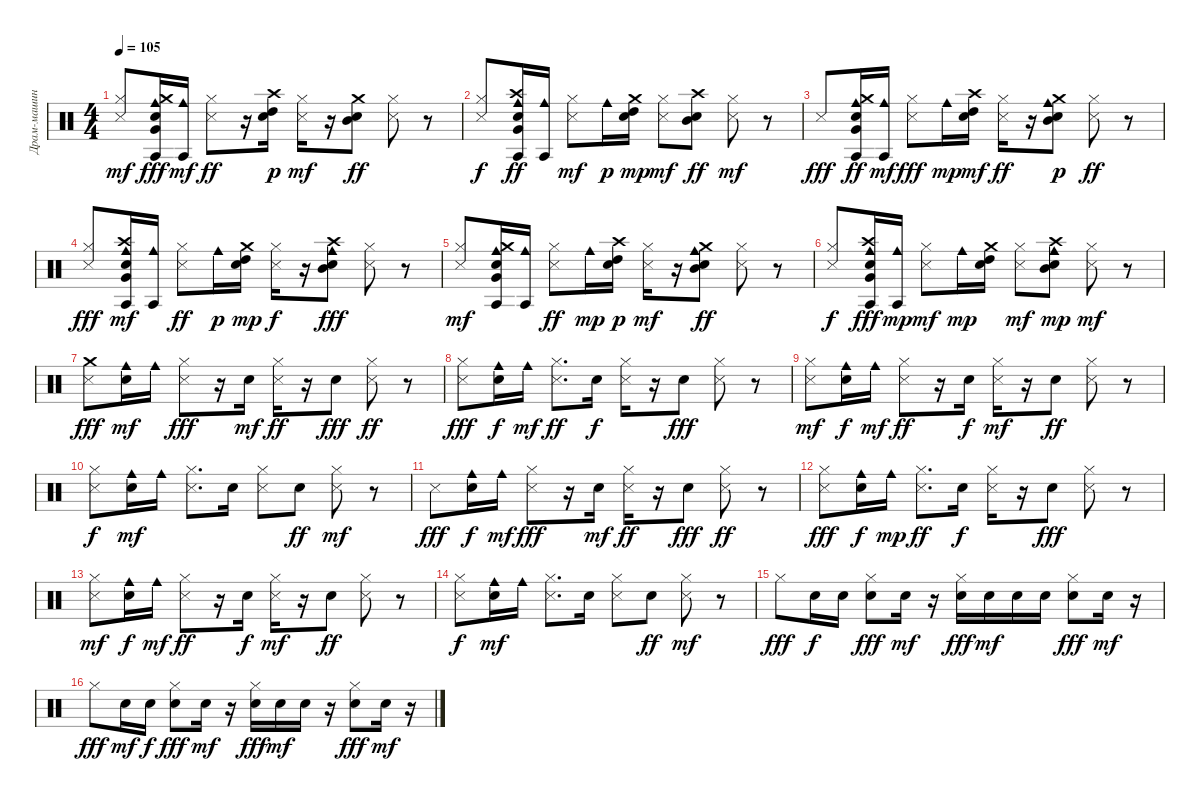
\track ("Драм-машина" "Драм-машин") {instrument percussion}
\staff {score}
\articulation defaults
\ts (4 4)
\tempo 105
\clef neutral
\ks c
("Metronome (hit)" "Hi-Hat (closed)").8{dy mf} ("Agogo tow (hit)" "Crash medium (hit)" "Snare (hit) 2" "Very Low Tom (hit)" "Cowbell medium (hit)").16{dy fff} ("Cowbell medium (hit)" "Agogo tow (hit)").16{dy mf} ("Metronome (hit)" "Hi-Hat (closed)").8{dy ff} r.16 ("High Tom (hit)" "Snare (hit) 2" "Crash high (hit)").16{dy p} ("Metronome (hit)" "Hi-Hat (closed)").16{dy mf} r.16 ("Mid Tom (hit)" "Crash medium (hit)" "Snare (hit) 2").8{dy ff} ("Metronome (hit)" "Hi-Hat (closed)").8 r.8 |
("Metronome (hit)" "Hi-Hat (closed)").8{dy f} ("Agogo tow (hit)" "Snare (hit) 2" "Crash high (hit)" "Very Low Tom (hit)" "Cowbell medium (hit)").16{dy ff} ("Agogo tow (hit)" "Cowbell medium (hit)").16 ("Metronome (hit)" "Hi-Hat (closed)").8{dy mf} "Cowbell medium (hit)".16{dy p} ("High Tom (hit)" "Snare (hit) 2" "Crash medium (hit)").16{dy mp} ("Metronome (hit)" "Hi-Hat (closed)").8{dy mf} ("Mid Tom (hit)" "Crash high (hit)" "Snare (hit) 2").8{dy ff} ("Metronome (hit)" "Hi-Hat (closed)").8{dy mf} r.8 |
"Metronome (hit)".8{dy fff} ("Crash medium (hit)" "Snare (hit) 2" "Very Low Tom (hit)" "Agogo tow (hit)" "Cowbell medium (hit)").16{dy ff} ("Agogo tow (hit)" "Cowbell medium (hit)").16{dy mf} ("Metronome (hit)" "Hi-Hat (closed)").8{dy fff} "Cowbell medium (hit)".16{dy mp} ("Crash high (hit)" "High Tom (hit)" "Snare (hit) 2").16{dy mf} ("Metronome (hit)" "Hi-Hat (closed)").16{dy ff} r.16 ("Crash medium (hit)" "Mid Tom (hit)" "Snare (hit) 2" "Cowbell medium (hit)").8{dy p} ("Metronome (hit)" "Hi-Hat (closed)").8{dy ff} r.8 |
("Metronome (hit)" "Hi-Hat (closed)").8{dy fff} ("Snare (hit) 2" "Very Low Tom (hit)" "Crash high (hit)" "Agogo tow (hit)" "Cowbell medium (hit)").16{dy mf} ("Agogo tow (hit)" "Cowbell medium (hit)").16 ("Metronome (hit)" "Hi-Hat (closed)").8{dy ff} "Cowbell medium (hit)".16{dy p} ("Crash medium (hit)" "High Tom (hit)" "Snare (hit) 2").16{dy mp} ("Metronome (hit)" "Hi-Hat (closed)").16{dy f} r.16 ("Cowbell medium (hit)" "Crash high (hit)" "Mid Tom (hit)" "Snare (hit) 2").8{dy fff} ("Metronome (hit)" "Hi-Hat (closed)").8 r.8 |
("Metronome (hit)" "Hi-Hat (closed)").8{dy mf} ("Crash medium (hit)" "Snare (hit) 2" "Very Low Tom (hit)" "Agogo tow (hit)" "Cowbell medium (hit)").16 ("Cowbell medium (hit)" "Agogo tow (hit)").16 ("Metronome (hit)" "Hi-Hat (closed)").8{dy ff} "Cowbell medium (hit)".16{dy mp} ("Crash high (hit)" "High Tom (hit)" "Snare (hit) 2").16{dy p} ("Metronome (hit)" "Hi-Hat (closed)").16{dy mf} r.16 ("Cowbell medium (hit)" "Crash medium (hit)" "Mid Tom (hit)" "Snare (hit) 2").8{dy ff} ("Metronome (hit)" "Hi-Hat (closed)").8 r.8 |
("Metronome (hit)" "Hi-Hat (closed)").8{dy f} ("Agogo tow (hit)" "Crash high (hit)" "Snare (hit) 2" "Very Low Tom (hit)" "Cowbell medium (hit)").16{dy fff} ("Agogo tow (hit)" "Cowbell medium (hit)").16{dy mp} ("Metronome (hit)" "Hi-Hat (closed)").8{dy mf} "Cowbell medium (hit)".16{dy mp} ("High Tom (hit)" "Snare (hit) 2" "Crash medium (hit)").16 ("Metronome (hit)" "Hi-Hat (closed)").8{dy mf} ("Crash high (hit)" "Mid Tom (hit)" "Snare (hit) 2" "Cowbell medium (hit)").8{dy mp} ("Metronome (hit)" "Hi-Hat (closed)").8{dy mf} r.8 |
("Metronome (hit)" "Crash medium (hit)").8{dy fff} ("Cowbell medium (hit)" "Snare (hit) 2").16{dy mf} "Cowbell medium (hit)".16 ("Metronome (hit)" "Hi-Hat (closed)").8{dy fff} r.16 "Snare (hit) 2".16{dy mf} ("Metronome (hit)" "Hi-Hat (closed)").16{dy ff} r.16 "Snare (hit) 2".8{dy fff} ("Metronome (hit)" "Hi-Hat (closed)").8{dy ff} r.8 |
("Metronome (hit)" "Hi-Hat (closed)").8{dy fff} ("Snare (hit) 2" "Cowbell medium (hit)").16{dy f} "Cowbell medium (hit)".16{dy mf} ("Metronome (hit)" "Hi-Hat (closed)").8{d dy ff} "Snare (hit) 2".16{dy f} ("Metronome (hit)" "Hi-Hat (closed)").16 r.16 "Snare (hit) 2".8{dy fff} ("Metronome (hit)" "Hi-Hat (closed)").8 r.8 |
("Metronome (hit)" "Hi-Hat (closed)").8{dy mf} ("Snare (hit) 2" "Cowbell medium (hit)").16{dy f} "Cowbell medium (hit)".16{dy mf} ("Metronome (hit)" "Hi-Hat (closed)").8{dy ff} r.16 "Snare (hit) 2".16{dy f} ("Metronome (hit)" "Hi-Hat (closed)").16{dy mf} r.16 "Snare (hit) 2".8{dy ff} ("Metronome (hit)" "Hi-Hat (closed)").8 r.8 |
("Metronome (hit)" "Hi-Hat (closed)").8{dy f} ("Cowbell medium (hit)" "Snare (hit) 2").16{dy mf} "Cowbell medium (hit)".16 ("Metronome (hit)" "Hi-Hat (closed)").8{d} "Snare (hit) 2".16 ("Metronome (hit)" "Hi-Hat (closed)").8 "Snare (hit) 2".8{dy ff} ("Metronome (hit)" "Hi-Hat (closed)").8{dy mf} r.8 |
"Metronome (hit)".8{dy fff} ("Snare (hit) 2" "Cowbell medium (hit)").16{dy f} "Cowbell medium (hit)".16{dy mf} ("Metronome (hit)" "Hi-Hat (closed)").8{dy fff} r.16 "Snare (hit) 2".16{dy mf} ("Metronome (hit)" "Hi-Hat (closed)").16{dy ff} r.16 "Snare (hit) 2".8{dy fff} ("Metronome (hit)" "Hi-Hat (closed)").8{dy ff} r.8 |
("Metronome (hit)" "Hi-Hat (closed)").8{dy fff} ("Snare (hit) 2" "Cowbell medium (hit)").16{dy f} "Cowbell medium (hit)".16{dy mp} ("Metronome (hit)" "Hi-Hat (closed)").8{d dy ff} "Snare (hit) 2".16{dy f} ("Metronome (hit)" "Hi-Hat (closed)").16 r.16 "Snare (hit) 2".8{dy fff} ("Metronome (hit)" "Hi-Hat (closed)").8 r.8 |
("Metronome (hit)" "Hi-Hat (closed)").8{dy mf} ("Snare (hit) 2" "Cowbell medium (hit)").16{dy f} "Cowbell medium (hit)".16{dy mf} ("Metronome (hit)" "Hi-Hat (closed)").8{dy ff} r.16 "Snare (hit) 2".16{dy f} ("Metronome (hit)" "Hi-Hat (closed)").16{dy mf} r.16 "Snare (hit) 2".8{dy ff} ("Metronome (hit)" "Hi-Hat (closed)").8 r.8 |
("Metronome (hit)" "Hi-Hat (closed)").8{dy f} ("Snare (hit) 2" "Cowbell medium (hit)").16{dy mf} "Cowbell medium (hit)".16 ("Metronome (hit)" "Hi-Hat (closed)").8{d} "Snare (hit) 2".16 ("Metronome (hit)" "Hi-Hat (closed)").8 "Snare (hit) 2".8{dy ff} ("Metronome (hit)" "Hi-Hat (closed)").8{dy mf} r.8 |
"Hi-Hat (closed)".8{dy fff} "Snare (hit) 2".16{dy f} "Snare (hit) 2".16 ("Snare (hit) 2" "Hi-Hat (closed)").8{dy fff} "Snare (hit) 2".16{dy mf} r.16 ("Snare (hit) 2" "Hi-Hat (closed)").16{dy fff} "Snare (hit) 2".16{dy mf} "Snare (hit) 2".16 "Snare (hit) 2".16 ("Snare (hit) 2" "Hi-Hat (closed)").8{dy fff} "Snare (hit) 2".16{dy mf} r.16 |
"Hi-Hat (closed)".8{dy fff} "Snare (hit) 2".16{dy mf} "Snare (hit) 2".16{dy f} ("Snare (hit) 2" "Hi-Hat (closed)").8{dy fff} "Snare (hit) 2".16{dy mf} r.16 ("Snare (hit) 2" "Hi-Hat (closed)").16{dy fff} "Snare (hit) 2".16{dy mf} "Snare (hit) 2".16 r.16 ("Snare (hit) 2" "Hi-Hat (closed)").8{dy fff} "Snare (hit) 2".16{dy mf} r.16
